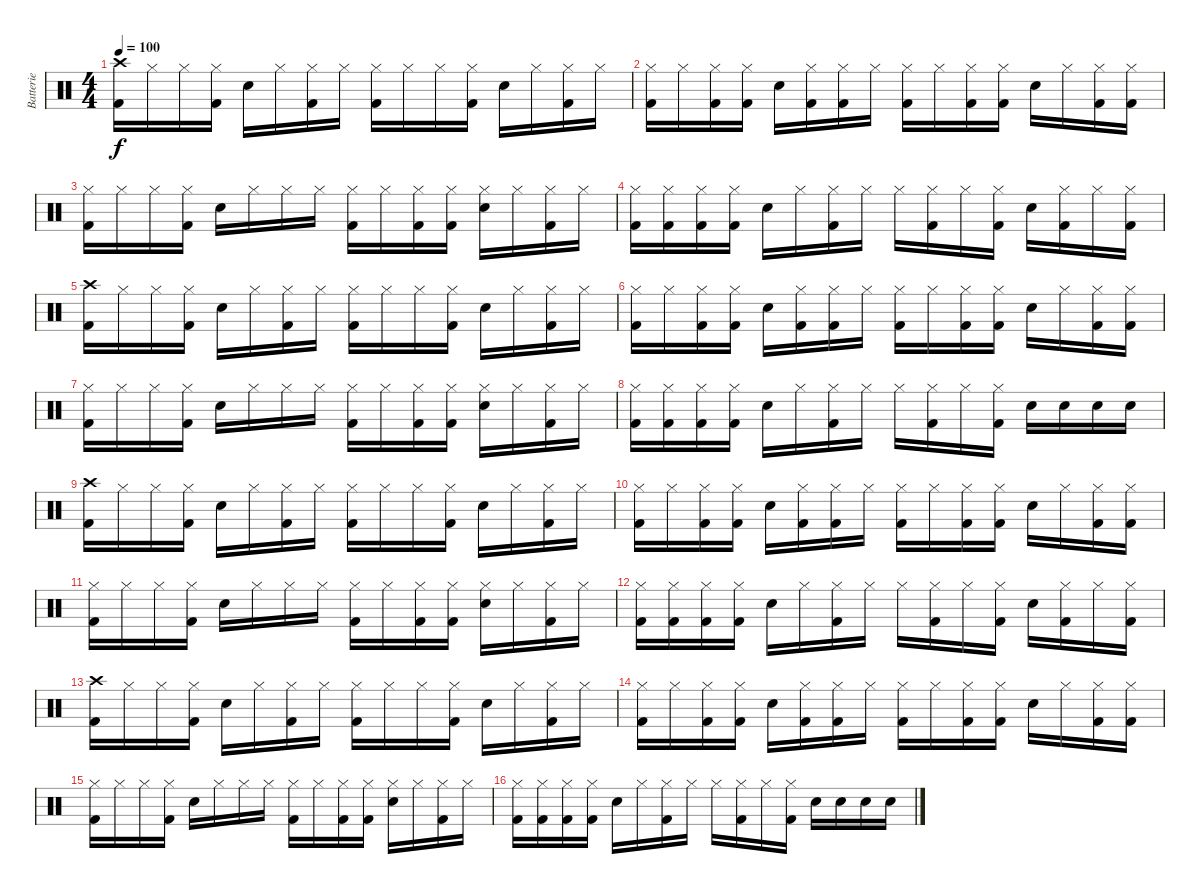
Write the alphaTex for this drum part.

\track ("Batterie" "Batterie") {instrument percussion}
\staff {score}
\articulation defaults
\ts (4 4)
\tempo 100
\clef neutral
\ks c
("Crash high (hit)" "Kick (hit) 2").16{dy f} "Hi-Hat (closed)".16 "Hi-Hat (closed)".16 ("Hi-Hat (closed)" "Kick (hit) 2").16 "Snare (hit) 2".16 "Hi-Hat (closed)".16 ("Hi-Hat (closed)" "Kick (hit) 2").16 "Hi-Hat (closed)".16 ("Hi-Hat (closed)" "Kick (hit) 2").16 "Hi-Hat (closed)".16 "Hi-Hat (closed)".16 ("Hi-Hat (closed)" "Kick (hit) 2").16 "Snare (hit) 2".16 "Hi-Hat (closed)".16 ("Hi-Hat (closed)" "Kick (hit) 2").16 "Hi-Hat (closed)".16 |
("Hi-Hat (closed)" "Kick (hit) 2").16 "Hi-Hat (closed)".16 ("Hi-Hat (closed)" "Kick (hit) 2").16 ("Hi-Hat (closed)" "Kick (hit) 2").16 "Snare (hit) 2".16 ("Hi-Hat (closed)" "Kick (hit) 2").16 ("Hi-Hat (closed)" "Kick (hit) 2").16 "Hi-Hat (closed)".16 ("Hi-Hat (closed)" "Kick (hit) 2").16 "Hi-Hat (closed)".16 ("Hi-Hat (closed)" "Kick (hit) 2").16 ("Hi-Hat (closed)" "Kick (hit) 2").16 "Snare (hit) 2".16 "Hi-Hat (closed)".16 ("Hi-Hat (closed)" "Kick (hit) 2").16 ("Hi-Hat (closed)" "Kick (hit) 2").16 |
("Hi-Hat (closed)" "Kick (hit) 2").16 "Hi-Hat (closed)".16 "Hi-Hat (closed)".16 ("Hi-Hat (closed)" "Kick (hit) 2").16 "Snare (hit) 2".16 "Hi-Hat (closed)".16 "Hi-Hat (closed)".16 "Hi-Hat (closed)".16 ("Hi-Hat (closed)" "Kick (hit) 2").16 "Hi-Hat (closed)".16 ("Hi-Hat (closed)" "Kick (hit) 2").16 ("Hi-Hat (closed)" "Kick (hit) 2").16 ("Hi-Hat (closed)" "Snare (hit) 2").16 "Hi-Hat (closed)".16 ("Hi-Hat (closed)" "Kick (hit) 2").16 "Hi-Hat (closed)".16 |
("Hi-Hat (closed)" "Kick (hit) 2").16 ("Hi-Hat (closed)" "Kick (hit) 2").16 ("Hi-Hat (closed)" "Kick (hit) 2").16 ("Hi-Hat (closed)" "Kick (hit) 2").16 "Snare (hit) 2".16 "Hi-Hat (closed)".16 ("Hi-Hat (closed)" "Kick (hit) 2").16 "Hi-Hat (closed)".16 "Hi-Hat (closed)".16 ("Hi-Hat (closed)" "Kick (hit) 2").16 "Hi-Hat (closed)".16 ("Hi-Hat (closed)" "Kick (hit) 2").16 "Snare (hit) 2".16 ("Hi-Hat (closed)" "Kick (hit) 2").16 "Hi-Hat (closed)".16 ("Hi-Hat (closed)" "Kick (hit) 2").16 |
("Crash high (hit)" "Kick (hit) 2").16 "Hi-Hat (closed)".16 "Hi-Hat (closed)".16 ("Hi-Hat (closed)" "Kick (hit) 2").16 "Snare (hit) 2".16 "Hi-Hat (closed)".16 ("Hi-Hat (closed)" "Kick (hit) 2").16 "Hi-Hat (closed)".16 ("Hi-Hat (closed)" "Kick (hit) 2").16 "Hi-Hat (closed)".16 "Hi-Hat (closed)".16 ("Hi-Hat (closed)" "Kick (hit) 2").16 "Snare (hit) 2".16 "Hi-Hat (closed)".16 ("Hi-Hat (closed)" "Kick (hit) 2").16 "Hi-Hat (closed)".16 |
("Hi-Hat (closed)" "Kick (hit) 2").16 "Hi-Hat (closed)".16 ("Hi-Hat (closed)" "Kick (hit) 2").16 ("Hi-Hat (closed)" "Kick (hit) 2").16 "Snare (hit) 2".16 ("Hi-Hat (closed)" "Kick (hit) 2").16 ("Hi-Hat (closed)" "Kick (hit) 2").16 "Hi-Hat (closed)".16 ("Hi-Hat (closed)" "Kick (hit) 2").16 "Hi-Hat (closed)".16 ("Hi-Hat (closed)" "Kick (hit) 2").16 ("Hi-Hat (closed)" "Kick (hit) 2").16 "Snare (hit) 2".16 "Hi-Hat (closed)".16 ("Hi-Hat (closed)" "Kick (hit) 2").16 ("Hi-Hat (closed)" "Kick (hit) 2").16 |
("Hi-Hat (closed)" "Kick (hit) 2").16 "Hi-Hat (closed)".16 "Hi-Hat (closed)".16 ("Hi-Hat (closed)" "Kick (hit) 2").16 "Snare (hit) 2".16 "Hi-Hat (closed)".16 "Hi-Hat (closed)".16 "Hi-Hat (closed)".16 ("Hi-Hat (closed)" "Kick (hit) 2").16 "Hi-Hat (closed)".16 ("Hi-Hat (closed)" "Kick (hit) 2").16 ("Hi-Hat (closed)" "Kick (hit) 2").16 ("Hi-Hat (closed)" "Snare (hit) 2").16 "Hi-Hat (closed)".16 ("Hi-Hat (closed)" "Kick (hit) 2").16 "Hi-Hat (closed)".16 |
("Hi-Hat (closed)" "Kick (hit) 2").16 ("Hi-Hat (closed)" "Kick (hit) 2").16 ("Hi-Hat (closed)" "Kick (hit) 2").16 ("Hi-Hat (closed)" "Kick (hit) 2").16 "Snare (hit) 2".16 "Hi-Hat (closed)".16 ("Hi-Hat (closed)" "Kick (hit) 2").16 "Hi-Hat (closed)".16 "Hi-Hat (closed)".16 ("Hi-Hat (closed)" "Kick (hit) 2").16 "Hi-Hat (closed)".16 ("Hi-Hat (closed)" "Kick (hit) 2").16 "Snare (hit) 2".16 "Snare (hit) 2".16 "Snare (hit) 2".16 "Snare (hit) 2".16 |
("Crash high (hit)" "Kick (hit) 2").16 "Hi-Hat (closed)".16 "Hi-Hat (closed)".16 ("Hi-Hat (closed)" "Kick (hit) 2").16 "Snare (hit) 2".16 "Hi-Hat (closed)".16 ("Hi-Hat (closed)" "Kick (hit) 2").16 "Hi-Hat (closed)".16 ("Hi-Hat (closed)" "Kick (hit) 2").16 "Hi-Hat (closed)".16 "Hi-Hat (closed)".16 ("Hi-Hat (closed)" "Kick (hit) 2").16 "Snare (hit) 2".16 "Hi-Hat (closed)".16 ("Hi-Hat (closed)" "Kick (hit) 2").16 "Hi-Hat (closed)".16 |
("Hi-Hat (closed)" "Kick (hit) 2").16 "Hi-Hat (closed)".16 ("Hi-Hat (closed)" "Kick (hit) 2").16 ("Hi-Hat (closed)" "Kick (hit) 2").16 "Snare (hit) 2".16 ("Hi-Hat (closed)" "Kick (hit) 2").16 ("Hi-Hat (closed)" "Kick (hit) 2").16 "Hi-Hat (closed)".16 ("Hi-Hat (closed)" "Kick (hit) 2").16 "Hi-Hat (closed)".16 ("Hi-Hat (closed)" "Kick (hit) 2").16 ("Hi-Hat (closed)" "Kick (hit) 2").16 "Snare (hit) 2".16 "Hi-Hat (closed)".16 ("Hi-Hat (closed)" "Kick (hit) 2").16 ("Hi-Hat (closed)" "Kick (hit) 2").16 |
("Hi-Hat (closed)" "Kick (hit) 2").16 "Hi-Hat (closed)".16 "Hi-Hat (closed)".16 ("Hi-Hat (closed)" "Kick (hit) 2").16 "Snare (hit) 2".16 "Hi-Hat (closed)".16 "Hi-Hat (closed)".16 "Hi-Hat (closed)".16 ("Hi-Hat (closed)" "Kick (hit) 2").16 "Hi-Hat (closed)".16 ("Hi-Hat (closed)" "Kick (hit) 2").16 ("Hi-Hat (closed)" "Kick (hit) 2").16 ("Hi-Hat (closed)" "Snare (hit) 2").16 "Hi-Hat (closed)".16 ("Hi-Hat (closed)" "Kick (hit) 2").16 "Hi-Hat (closed)".16 |
("Hi-Hat (closed)" "Kick (hit) 2").16 ("Hi-Hat (closed)" "Kick (hit) 2").16 ("Hi-Hat (closed)" "Kick (hit) 2").16 ("Hi-Hat (closed)" "Kick (hit) 2").16 "Snare (hit) 2".16 "Hi-Hat (closed)".16 ("Hi-Hat (closed)" "Kick (hit) 2").16 "Hi-Hat (closed)".16 "Hi-Hat (closed)".16 ("Hi-Hat (closed)" "Kick (hit) 2").16 "Hi-Hat (closed)".16 ("Hi-Hat (closed)" "Kick (hit) 2").16 "Snare (hit) 2".16 ("Hi-Hat (closed)" "Kick (hit) 2").16 "Hi-Hat (closed)".16 ("Hi-Hat (closed)" "Kick (hit) 2").16 |
("Crash high (hit)" "Kick (hit) 2").16 "Hi-Hat (closed)".16 "Hi-Hat (closed)".16 ("Hi-Hat (closed)" "Kick (hit) 2").16 "Snare (hit) 2".16 "Hi-Hat (closed)".16 ("Hi-Hat (closed)" "Kick (hit) 2").16 "Hi-Hat (closed)".16 ("Hi-Hat (closed)" "Kick (hit) 2").16 "Hi-Hat (closed)".16 "Hi-Hat (closed)".16 ("Hi-Hat (closed)" "Kick (hit) 2").16 "Snare (hit) 2".16 "Hi-Hat (closed)".16 ("Hi-Hat (closed)" "Kick (hit) 2").16 "Hi-Hat (closed)".16 |
("Hi-Hat (closed)" "Kick (hit) 2").16 "Hi-Hat (closed)".16 ("Hi-Hat (closed)" "Kick (hit) 2").16 ("Hi-Hat (closed)" "Kick (hit) 2").16 "Snare (hit) 2".16 ("Hi-Hat (closed)" "Kick (hit) 2").16 ("Hi-Hat (closed)" "Kick (hit) 2").16 "Hi-Hat (closed)".16 ("Hi-Hat (closed)" "Kick (hit) 2").16 "Hi-Hat (closed)".16 ("Hi-Hat (closed)" "Kick (hit) 2").16 ("Hi-Hat (closed)" "Kick (hit) 2").16 "Snare (hit) 2".16 "Hi-Hat (closed)".16 ("Hi-Hat (closed)" "Kick (hit) 2").16 ("Hi-Hat (closed)" "Kick (hit) 2").16 |
("Hi-Hat (closed)" "Kick (hit) 2").16 "Hi-Hat (closed)".16 "Hi-Hat (closed)".16 ("Hi-Hat (closed)" "Kick (hit) 2").16 "Snare (hit) 2".16 "Hi-Hat (closed)".16 "Hi-Hat (closed)".16 "Hi-Hat (closed)".16 ("Hi-Hat (closed)" "Kick (hit) 2").16 "Hi-Hat (closed)".16 ("Hi-Hat (closed)" "Kick (hit) 2").16 ("Hi-Hat (closed)" "Kick (hit) 2").16 ("Hi-Hat (closed)" "Snare (hit) 2").16 "Hi-Hat (closed)".16 ("Hi-Hat (closed)" "Kick (hit) 2").16 "Hi-Hat (closed)".16 |
("Hi-Hat (closed)" "Kick (hit) 2").16 ("Hi-Hat (closed)" "Kick (hit) 2").16 ("Hi-Hat (closed)" "Kick (hit) 2").16 ("Hi-Hat (closed)" "Kick (hit) 2").16 "Snare (hit) 2".16 "Hi-Hat (closed)".16 ("Hi-Hat (closed)" "Kick (hit) 2").16 "Hi-Hat (closed)".16 "Hi-Hat (closed)".16 ("Hi-Hat (closed)" "Kick (hit) 2").16 "Hi-Hat (closed)".16 ("Hi-Hat (closed)" "Kick (hit) 2").16 "Snare (hit) 2".16 "Snare (hit) 2".16 "Snare (hit) 2".16 "Snare (hit) 2".16
